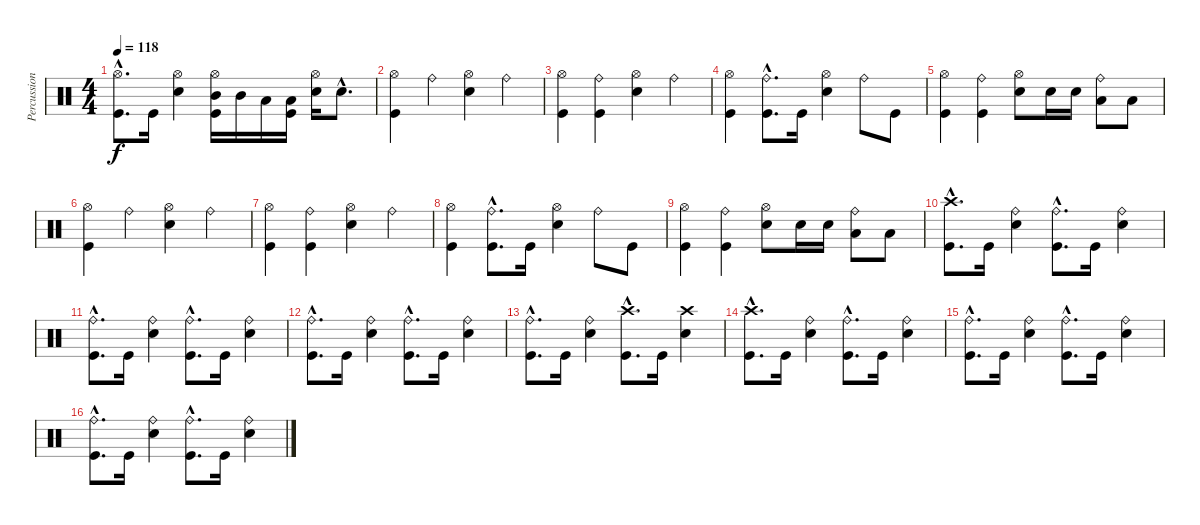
\track ("Percussion" "Percussion") {instrument percussion}
\staff {score}
\articulation defaults
\ts (4 4)
\tempo 118
\clef neutral
\ks c
("Hi-Hat (open)"{hac} "Kick (hit)"{hac}).8{d dy f} "Kick (hit)".16 ("Hi-Hat (open)" "Snare (hit) 2").4 ("Hi-Hat (open)" "Mid Tom (hit)" "Kick (hit)").16 "Mid Tom (hit)".16 "Low Tom (hit)".16 ("Low Tom (hit)" "Kick (hit)").16 ("Hi-Hat (open)" "Snare (hit) 2").16 "Electric Snare (hit)"{hac}.8{d} |
("Hi-Hat (open)" "Kick (hit)").4 "Ride (bell)".4 ("Hi-Hat (open)" "Snare (hit) 2").4 "Ride (bell)".4 |
("Hi-Hat (open)" "Kick (hit)").4 ("Ride (bell)" "Kick (hit)").4 ("Hi-Hat (open)" "Snare (hit) 2").4 "Ride (bell)".4 |
("Hi-Hat (open)" "Kick (hit)").4 ("Ride (bell)"{hac} "Kick (hit)"{hac}).8{d} "Kick (hit)".16 ("Hi-Hat (open)" "Snare (hit) 2").4 "Ride (bell)".8 "Kick (hit)".8 |
("Hi-Hat (open)" "Kick (hit)").4 ("Ride (bell)" "Kick (hit)").4 ("Hi-Hat (open)" "Snare (hit) 2").8 "Snare (hit) 2".16 "Electric Snare (hit)".16 ("Ride (bell)" "Low Tom (hit)").8 "Low Tom (hit)".8 |
("Hi-Hat (open)" "Kick (hit)").4 "Ride (bell)".4 ("Hi-Hat (open)" "Snare (hit) 2").4 "Ride (bell)".4 |
("Hi-Hat (open)" "Kick (hit)").4 ("Ride (bell)" "Kick (hit)").4 ("Hi-Hat (open)" "Snare (hit) 2").4 "Ride (bell)".4 |
("Hi-Hat (open)" "Kick (hit)").4 ("Ride (bell)"{hac} "Kick (hit)"{hac}).8{d} "Kick (hit)".16 ("Hi-Hat (open)" "Snare (hit) 2").4 "Ride (bell)".8 "Kick (hit)".8 |
("Hi-Hat (open)" "Kick (hit)").4 ("Ride (bell)" "Kick (hit)").4 ("Hi-Hat (open)" "Snare (hit) 2").8 "Snare (hit) 2".16 "Electric Snare (hit)".16 ("Ride (bell)" "Low Tom (hit)").8 "Low Tom (hit)".8 |
("Crash high (hit)"{hac} "Kick (hit)"{hac}).8{d} "Kick (hit)".16 ("Ride (bell)" "Snare (hit) 2").4 ("Ride (bell)"{hac} "Kick (hit)"{hac}).8{d} "Kick (hit)".16 ("Ride (bell)" "Snare (hit) 2").4 |
("Ride (bell)"{hac} "Kick (hit)"{hac}).8{d} "Kick (hit)".16 ("Ride (bell)" "Snare (hit) 2").4 ("Ride (bell)"{hac} "Kick (hit)"{hac}).8{d} "Kick (hit)".16 ("Ride (bell)" "Snare (hit) 2").4 |
("Ride (bell)"{hac} "Kick (hit)"{hac}).8{d} "Kick (hit)".16 ("Ride (bell)" "Snare (hit) 2").4 ("Ride (bell)"{hac} "Kick (hit)"{hac}).8{d} "Kick (hit)".16 ("Ride (bell)" "Snare (hit) 2").4 |
("Ride (bell)"{hac} "Kick (hit)"{hac}).8{d} "Kick (hit)".16 ("Ride (bell)" "Snare (hit) 2").4 ("Crash high (hit)"{hac} "Kick (hit)"{hac}).8{d} "Kick (hit)".16 ("Crash high (hit)" "Snare (hit) 2").4 |
("Crash high (hit)"{hac} "Kick (hit)"{hac}).8{d} "Kick (hit)".16 ("Ride (bell)" "Snare (hit) 2").4 ("Ride (bell)"{hac} "Kick (hit)"{hac}).8{d} "Kick (hit)".16 ("Ride (bell)" "Snare (hit) 2").4 |
("Ride (bell)"{hac} "Kick (hit)"{hac}).8{d} "Kick (hit)".16 ("Ride (bell)" "Snare (hit) 2").4 ("Ride (bell)"{hac} "Kick (hit)"{hac}).8{d} "Kick (hit)".16 ("Ride (bell)" "Snare (hit) 2").4 |
("Ride (bell)"{hac} "Kick (hit)"{hac}).8{d} "Kick (hit)".16 ("Ride (bell)" "Snare (hit) 2").4 ("Ride (bell)"{hac} "Kick (hit)"{hac}).8{d} "Kick (hit)".16 ("Ride (bell)" "Snare (hit) 2").4
